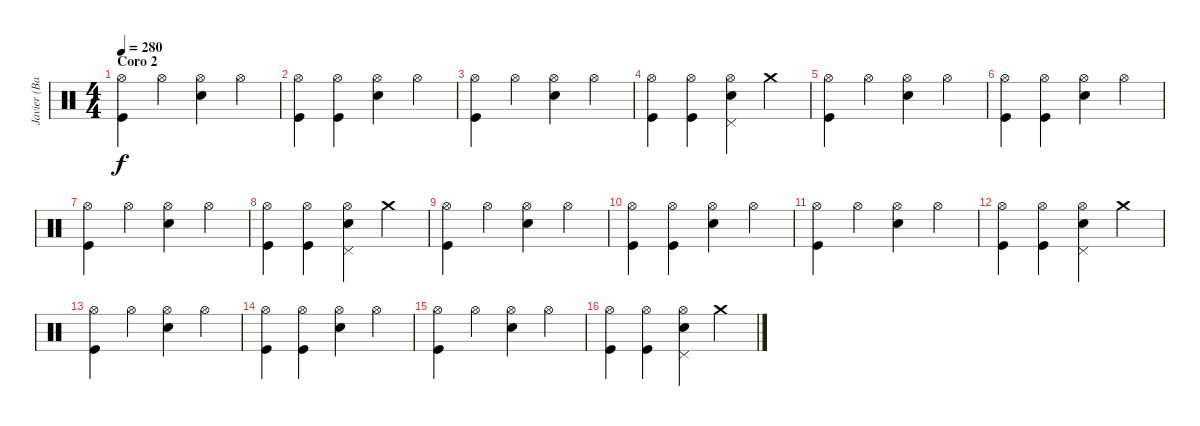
\track ("Javier (Bateria)" "Javier (Ba") {instrument percussion}
\staff {score}
\articulation defaults
\ts (4 4)
\section ("" "Coro 2")
\tempo 280
\clef neutral
\ks c
("Hi-Hat (open)" "Kick (hit)").4{dy f} "Hi-Hat (open)".4 ("Hi-Hat (open)" "Snare (hit) 2").4 "Hi-Hat (open)".4 |
("Hi-Hat (open)" "Kick (hit)").4 ("Hi-Hat (open)" "Kick (hit)").4 ("Hi-Hat (open)" "Snare (hit) 2").4 "Hi-Hat (open)".4 |
("Hi-Hat (open)" "Kick (hit)").4 "Hi-Hat (open)".4 ("Hi-Hat (open)" "Snare (hit) 2").4 "Hi-Hat (open)".4 |
("Hi-Hat (open)" "Kick (hit)").4 ("Hi-Hat (open)" "Kick (hit)").4 ("Hi-Hat (open)" "Pedal Hi-Hat (hit)" "Snare (hit) 2").4 "Crash medium (hit)".4 |
("Hi-Hat (open)" "Kick (hit)").4 "Hi-Hat (open)".4 ("Hi-Hat (open)" "Snare (hit) 2").4 "Hi-Hat (open)".4 |
("Hi-Hat (open)" "Kick (hit)").4 ("Hi-Hat (open)" "Kick (hit)").4 ("Hi-Hat (open)" "Snare (hit) 2").4 "Hi-Hat (open)".4 |
("Hi-Hat (open)" "Kick (hit)").4 "Hi-Hat (open)".4 ("Hi-Hat (open)" "Snare (hit) 2").4 "Hi-Hat (open)".4 |
("Hi-Hat (open)" "Kick (hit)").4 ("Hi-Hat (open)" "Kick (hit)").4 ("Hi-Hat (open)" "Pedal Hi-Hat (hit)" "Snare (hit) 2").4 "Crash medium (hit)".4 |
("Hi-Hat (open)" "Kick (hit)").4 "Hi-Hat (open)".4 ("Hi-Hat (open)" "Snare (hit) 2").4 "Hi-Hat (open)".4 |
("Hi-Hat (open)" "Kick (hit)").4 ("Hi-Hat (open)" "Kick (hit)").4 ("Hi-Hat (open)" "Snare (hit) 2").4 "Hi-Hat (open)".4 |
("Hi-Hat (open)" "Kick (hit)").4 "Hi-Hat (open)".4 ("Hi-Hat (open)" "Snare (hit) 2").4 "Hi-Hat (open)".4 |
("Hi-Hat (open)" "Kick (hit)").4 ("Hi-Hat (open)" "Kick (hit)").4 ("Hi-Hat (open)" "Pedal Hi-Hat (hit)" "Snare (hit) 2").4 "Crash medium (hit)".4 |
("Hi-Hat (open)" "Kick (hit)").4 "Hi-Hat (open)".4 ("Hi-Hat (open)" "Snare (hit) 2").4 "Hi-Hat (open)".4 |
("Hi-Hat (open)" "Kick (hit)").4 ("Hi-Hat (open)" "Kick (hit)").4 ("Hi-Hat (open)" "Snare (hit) 2").4 "Hi-Hat (open)".4 |
("Hi-Hat (open)" "Kick (hit)").4 "Hi-Hat (open)".4 ("Hi-Hat (open)" "Snare (hit) 2").4 "Hi-Hat (open)".4 |
("Hi-Hat (open)" "Kick (hit)").4 ("Hi-Hat (open)" "Kick (hit)").4 ("Hi-Hat (open)" "Pedal Hi-Hat (hit)" "Snare (hit) 2").4 "Crash medium (hit)".4
